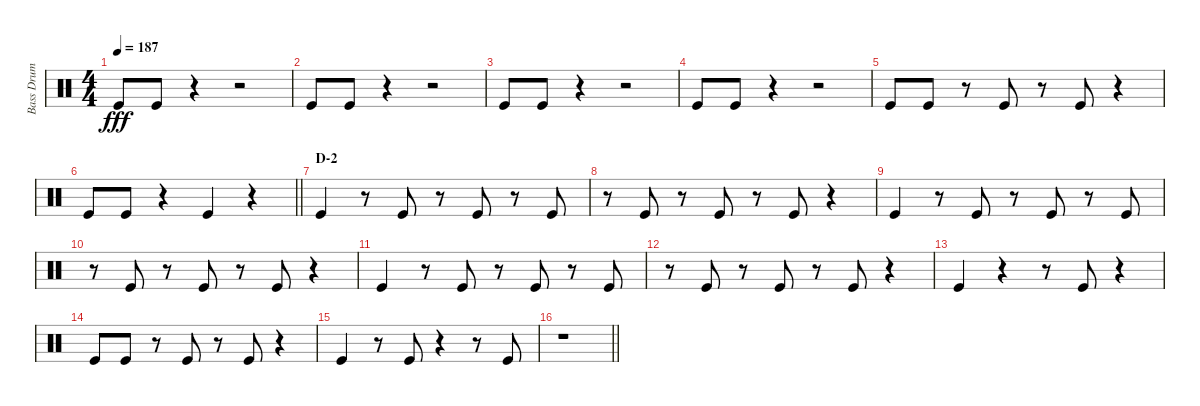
\track ("Bass Drum" "Bass Drum") {instrument percussion}
\staff {score}
\articulation defaults
\ts (4 4)
\tempo 187
\clef neutral
\ks c "Kick (hit)".8{dy fff} "Kick (hit)".8
r.4 r.2 |
"Kick (hit)".8 "Kick (hit)".8 r.4 r.2 |
"Kick (hit)".8 "Kick (hit)".8 r.4 r.2 |
"Kick (hit)".8 "Kick (hit)".8 r.4 r.2 |
"Kick (hit)".8 "Kick (hit)".8 r.8 "Kick (hit)".8 r.8 "Kick (hit)".8 r.4 |
\barLineRight lightlight "Kick (hit)".8 "Kick (hit)".8
r.4 "Kick (hit)".4 r.4 |
\section ("" "D-2")
"Kick (hit)".4 r.8 "Kick (hit)".8 r.8 "Kick (hit)".8 r.8 "Kick (hit)".8 |
r.8 "Kick (hit)".8 r.8 "Kick (hit)".8 r.8 "Kick (hit)".8 r.4 |
"Kick (hit)".4 r.8 "Kick (hit)".8 r.8 "Kick (hit)".8 r.8 "Kick (hit)".8 |
r.8 "Kick (hit)".8 r.8 "Kick (hit)".8 r.8 "Kick (hit)".8 r.4 |
"Kick (hit)".4 r.8 "Kick (hit)".8 r.8 "Kick (hit)".8 r.8 "Kick (hit)".8 |
r.8 "Kick (hit)".8 r.8 "Kick (hit)".8 r.8 "Kick (hit)".8 r.4 |
"Kick (hit)".4 r.4 r.8 "Kick (hit)".8 r.4 |
"Kick (hit)".8 "Kick (hit)".8 r.8 "Kick (hit)".8 r.8 "Kick (hit)".8 r.4 |
"Kick (hit)".4 r.8 "Kick (hit)".8 r.4 r.8 "Kick (hit)".8 |
\barLineRight lightlight
r.1
